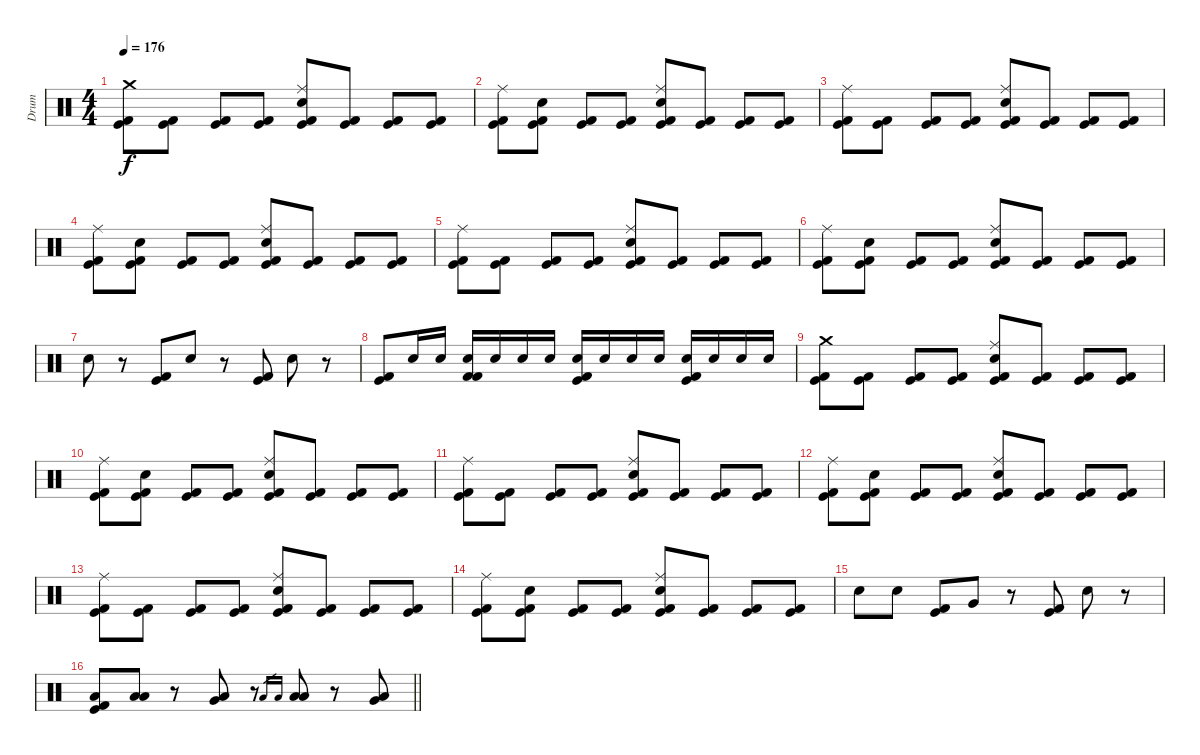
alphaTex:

\track ("Drum" "Drum") {instrument percussion}
\staff {score}
\articulation defaults
\ts (4 4)
\tempo 176
\clef neutral
\ks c
("Crash medium (hit)" "Kick (hit)" "Kick (hit) 2").8{dy f} ("Kick (hit)" "Kick (hit) 2").8 ("Kick (hit)" "Kick (hit) 2").8 ("Kick (hit)" "Kick (hit) 2").8 ("Ride (middle)" "Electric Snare (hit)" "Kick (hit)" "Kick (hit) 2").8 ("Kick (hit)" "Kick (hit) 2").8 ("Kick (hit)" "Kick (hit) 2").8 ("Kick (hit)" "Kick (hit) 2").8 |
("Ride (middle)" "Kick (hit)" "Kick (hit) 2").8 ("Electric Snare (hit)" "Kick (hit)" "Kick (hit) 2").8 ("Kick (hit)" "Kick (hit) 2").8 ("Kick (hit)" "Kick (hit) 2").8 ("Ride (middle)" "Electric Snare (hit)" "Kick (hit)" "Kick (hit) 2").8 ("Kick (hit)" "Kick (hit) 2").8 ("Kick (hit)" "Kick (hit) 2").8 ("Kick (hit)" "Kick (hit) 2").8 |
("Ride (middle)" "Kick (hit)" "Kick (hit) 2").8 ("Kick (hit)" "Kick (hit) 2").8 ("Kick (hit)" "Kick (hit) 2").8 ("Kick (hit)" "Kick (hit) 2").8 ("Ride (middle)" "Electric Snare (hit)" "Kick (hit)" "Kick (hit) 2").8 ("Kick (hit)" "Kick (hit) 2").8 ("Kick (hit)" "Kick (hit) 2").8 ("Kick (hit)" "Kick (hit) 2").8 |
("Ride (middle)" "Kick (hit)" "Kick (hit) 2").8 ("Electric Snare (hit)" "Kick (hit)" "Kick (hit) 2").8 ("Kick (hit)" "Kick (hit) 2").8 ("Kick (hit)" "Kick (hit) 2").8 ("Ride (middle)" "Electric Snare (hit)" "Kick (hit)" "Kick (hit) 2").8 ("Kick (hit)" "Kick (hit) 2").8 ("Kick (hit)" "Kick (hit) 2").8 ("Kick (hit)" "Kick (hit) 2").8 |
("Ride (middle)" "Kick (hit)" "Kick (hit) 2").8 ("Kick (hit)" "Kick (hit) 2").8 ("Kick (hit)" "Kick (hit) 2").8 ("Kick (hit)" "Kick (hit) 2").8 ("Ride (middle)" "Electric Snare (hit)" "Kick (hit)" "Kick (hit) 2").8 ("Kick (hit)" "Kick (hit) 2").8 ("Kick (hit)" "Kick (hit) 2").8 ("Kick (hit)" "Kick (hit) 2").8 |
("Ride (middle)" "Kick (hit)" "Kick (hit) 2").8 ("Electric Snare (hit)" "Kick (hit)" "Kick (hit) 2").8 ("Kick (hit)" "Kick (hit) 2").8 ("Kick (hit)" "Kick (hit) 2").8 ("Ride (middle)" "Electric Snare (hit)" "Kick (hit)" "Kick (hit) 2").8 ("Kick (hit)" "Kick (hit) 2").8 ("Kick (hit)" "Kick (hit) 2").8 ("Kick (hit)" "Kick (hit) 2").8 |
"Electric Snare (hit)".8 r.8 ("Kick (hit)" "Kick (hit) 2").8 "Electric Snare (hit)".8 r.8 ("Kick (hit)" "Kick (hit) 2").8 "Electric Snare (hit)".8 r.8 |
("Kick (hit)" "Kick (hit) 2").8 "Electric Snare (hit)".16 "Electric Snare (hit)".16 ("Electric Snare (hit)" "Kick (hit) 2" "Kick (hit) 2").16 "Electric Snare (hit)".16 "Electric Snare (hit)".16 "Electric Snare (hit)".16 ("Electric Snare (hit)" "Kick (hit)" "Kick (hit) 2").16 "Electric Snare (hit)".16 "Electric Snare (hit)".16 "Electric Snare (hit)".16 ("Electric Snare (hit)" "Kick (hit)" "Kick (hit) 2").16 "Electric Snare (hit)".16 "Electric Snare (hit)".16 "Electric Snare (hit)".16 |
("Crash medium (hit)" "Kick (hit)" "Kick (hit) 2").8 ("Kick (hit)" "Kick (hit) 2").8 ("Kick (hit)" "Kick (hit) 2").8 ("Kick (hit)" "Kick (hit) 2").8 ("Ride (middle)" "Electric Snare (hit)" "Kick (hit)" "Kick (hit) 2").8 ("Kick (hit)" "Kick (hit) 2").8 ("Kick (hit)" "Kick (hit) 2").8 ("Kick (hit)" "Kick (hit) 2").8 |
("Ride (middle)" "Kick (hit)" "Kick (hit) 2").8 ("Electric Snare (hit)" "Kick (hit)" "Kick (hit) 2").8 ("Kick (hit)" "Kick (hit) 2").8 ("Kick (hit)" "Kick (hit) 2").8 ("Ride (middle)" "Electric Snare (hit)" "Kick (hit)" "Kick (hit) 2").8 ("Kick (hit)" "Kick (hit) 2").8 ("Kick (hit)" "Kick (hit) 2").8 ("Kick (hit)" "Kick (hit) 2").8 |
("Ride (middle)" "Kick (hit)" "Kick (hit) 2").8 ("Kick (hit)" "Kick (hit) 2").8 ("Kick (hit)" "Kick (hit) 2").8 ("Kick (hit)" "Kick (hit) 2").8 ("Ride (middle)" "Electric Snare (hit)" "Kick (hit)" "Kick (hit) 2").8 ("Kick (hit)" "Kick (hit) 2").8 ("Kick (hit)" "Kick (hit) 2").8 ("Kick (hit)" "Kick (hit) 2").8 |
("Ride (middle)" "Kick (hit)" "Kick (hit) 2").8 ("Electric Snare (hit)" "Kick (hit)" "Kick (hit) 2").8 ("Kick (hit)" "Kick (hit) 2").8 ("Kick (hit)" "Kick (hit) 2").8 ("Ride (middle)" "Electric Snare (hit)" "Kick (hit)" "Kick (hit) 2").8 ("Kick (hit)" "Kick (hit) 2").8 ("Kick (hit)" "Kick (hit) 2").8 ("Kick (hit)" "Kick (hit) 2").8 |
("Ride (middle)" "Kick (hit)" "Kick (hit) 2").8 ("Kick (hit)" "Kick (hit) 2").8 ("Kick (hit)" "Kick (hit) 2").8 ("Kick (hit)" "Kick (hit) 2").8 ("Ride (middle)" "Electric Snare (hit)" "Kick (hit)" "Kick (hit) 2").8 ("Kick (hit)" "Kick (hit) 2").8 ("Kick (hit)" "Kick (hit) 2").8 ("Kick (hit)" "Kick (hit) 2").8 |
("Ride (middle)" "Kick (hit)" "Kick (hit) 2").8 ("Electric Snare (hit)" "Kick (hit)" "Kick (hit) 2").8 ("Kick (hit)" "Kick (hit) 2").8 ("Kick (hit)" "Kick (hit) 2").8 ("Ride (middle)" "Electric Snare (hit)" "Kick (hit)" "Kick (hit) 2").8 ("Kick (hit)" "Kick (hit) 2").8 ("Kick (hit)" "Kick (hit) 2").8 ("Kick (hit)" "Kick (hit) 2").8 |
"Electric Snare (hit)".8 "Electric Snare (hit)".8 ("Kick (hit)" "Kick (hit) 2").8 "Very Low Tom (hit)".8 r.8 ("Kick (hit)" "Kick (hit) 2").8 "Electric Snare (hit)".8 r.8 |
\barLineRight lightlight
("Low Floor Tom (hit)" "Kick (hit)" "Kick (hit) 2").8 ("Low Floor Tom (hit)" "Low Tom (hit)").8 r.8 ("Low Floor Tom (hit)" "Very Low Tom (hit)").8 r.8 "Low Floor Tom (hit)".16{gr} "Low Floor Tom (hit)".16{gr} ("Low Floor Tom (hit)" "Low Floor Tom (hit)").8 r.8 ("Very Low Tom (hit)" "Low Tom (hit)").8
